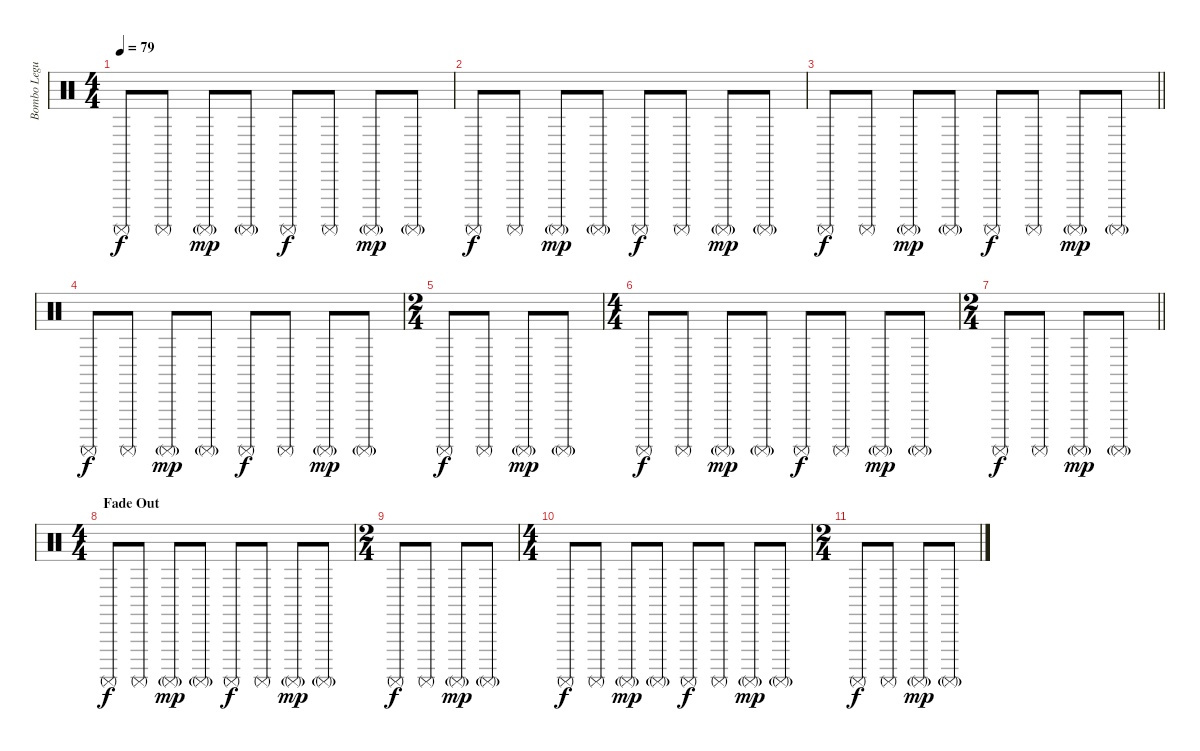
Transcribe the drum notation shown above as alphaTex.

\track ("Bombo Leguero" "Bombo Legu") {instrument percussion}
\staff {score}
\articulation defaults
\ts (4 4)
\section ("" "")
\tempo 79
\clef neutral
\ks c "Surdo (mute)".8{dy f} "Surdo (mute)".8 "Surdo (mute)"{g}.8{dy mp} "Surdo (mute)"{g}.8 "Surdo (mute)".8{dy f} "Surdo (mute)".8 "Surdo (mute)"{g}.8{dy mp} "Surdo (mute)"{g}.8
|
"Surdo (mute)".8{dy f} "Surdo (mute)".8 "Surdo (mute)"{g}.8{dy mp} "Surdo (mute)"{g}.8 "Surdo (mute)".8{dy f} "Surdo (mute)".8 "Surdo (mute)"{g}.8{dy mp} "Surdo (mute)"{g}.8 |
\barLineRight lightlight "Surdo (mute)".8{dy f} "Surdo (mute)".8 "Surdo (mute)"{g}.8{dy mp} "Surdo (mute)"{g}.8 "Surdo (mute)".8{dy f} "Surdo (mute)".8 "Surdo (mute)"{g}.8{dy mp} "Surdo (mute)"{g}.8
|
\section ("" "")
"Surdo (mute)".8{dy f} "Surdo (mute)".8 "Surdo (mute)"{g}.8{dy mp} "Surdo (mute)"{g}.8 "Surdo (mute)".8{dy f} "Surdo (mute)".8 "Surdo (mute)"{g}.8{dy mp} "Surdo (mute)"{g}.8 |
\ts (2 4)
"Surdo (mute)".8{dy f} "Surdo (mute)".8 "Surdo (mute)"{g}.8{dy mp} "Surdo (mute)"{g}.8 |
\ts (4 4)
"Surdo (mute)".8{dy f} "Surdo (mute)".8 "Surdo (mute)"{g}.8{dy mp} "Surdo (mute)"{g}.8 "Surdo (mute)".8{dy f} "Surdo (mute)".8 "Surdo (mute)"{g}.8{dy mp} "Surdo (mute)"{g}.8 |
\ts (2 4)
\barLineRight lightlight "Surdo (mute)".8{dy f} "Surdo (mute)".8 "Surdo (mute)"{g}.8{dy mp} "Surdo (mute)"{g}.8
|
\ts (4 4)
\section ("" "Fade Out")
"Surdo (mute)".8{dy f} "Surdo (mute)".8 "Surdo (mute)"{g}.8{dy mp} "Surdo (mute)"{g}.8 "Surdo (mute)".8{dy f} "Surdo (mute)".8 "Surdo (mute)"{g}.8{dy mp} "Surdo (mute)"{g}.8 |
\ts (2 4)
"Surdo (mute)".8{dy f} "Surdo (mute)".8 "Surdo (mute)"{g}.8{dy mp} "Surdo (mute)"{g}.8 |
\ts (4 4)
"Surdo (mute)".8{dy f} "Surdo (mute)".8 "Surdo (mute)"{g}.8{dy mp} "Surdo (mute)"{g}.8 "Surdo (mute)".8{dy f} "Surdo (mute)".8 "Surdo (mute)"{g}.8{dy mp} "Surdo (mute)"{g}.8 |
\ts (2 4)
"Surdo (mute)".8{dy f} "Surdo (mute)".8 "Surdo (mute)"{g}.8{dy mp} "Surdo (mute)"{g}.8
